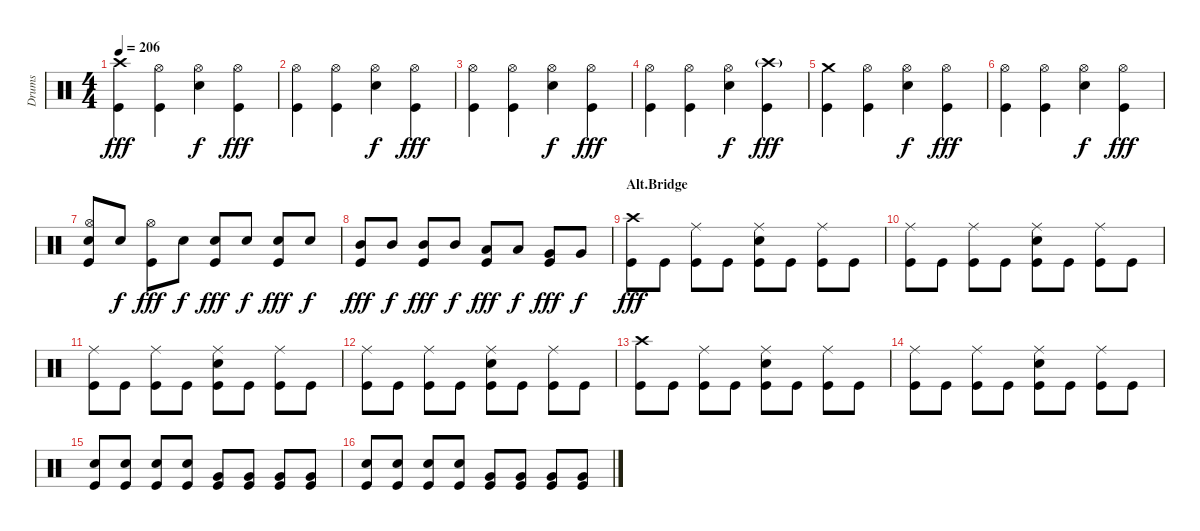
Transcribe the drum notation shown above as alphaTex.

\track ("Drums" "Drums") {instrument percussion}
\staff {score}
\articulation defaults
\ts (4 4)
\tempo 206
\clef neutral
\ks c
("Crash high (hit)" "Kick (hit)").4{dy fff} ("Hi-Hat (open)" "Kick (hit)").4 ("Hi-Hat (open)" "Snare (hit) 2").4{dy f} ("Hi-Hat (open)" "Kick (hit)").4{dy fff} |
("Hi-Hat (open)" "Kick (hit)").4 ("Hi-Hat (open)" "Kick (hit)").4 ("Hi-Hat (open)" "Snare (hit) 2").4{dy f} ("Hi-Hat (open)" "Kick (hit)").4{dy fff} |
("Hi-Hat (open)" "Kick (hit)").4 ("Hi-Hat (open)" "Kick (hit)").4 ("Hi-Hat (open)" "Snare (hit) 2").4{dy f} ("Hi-Hat (open)" "Kick (hit)").4{dy fff} |
("Hi-Hat (open)" "Kick (hit)").4 ("Hi-Hat (open)" "Kick (hit)").4 ("Hi-Hat (open)" "Snare (hit) 2").4{dy f} ("Crash high (hit)"{g} "Kick (hit)").4{dy fff} |
("Crash medium (hit)" "Kick (hit)").4 ("Hi-Hat (open)" "Kick (hit)").4 ("Hi-Hat (open)" "Snare (hit) 2").4{dy f} ("Hi-Hat (open)" "Kick (hit)").4{dy fff} |
("Hi-Hat (open)" "Kick (hit)").4 ("Hi-Hat (open)" "Kick (hit)").4 ("Hi-Hat (open)" "Snare (hit) 2").4{dy f} ("Hi-Hat (open)" "Kick (hit)").4{dy fff} |
("Hi-Hat (open)" "Snare (hit) 2" "Kick (hit)").8 "Snare (hit) 2".8{dy f} ("Hi-Hat (open)" "Kick (hit)").8{dy fff} "Snare (hit) 2".8{dy f} ("Snare (hit) 2" "Kick (hit)").8{dy fff} "Snare (hit) 2".8{dy f} ("Snare (hit) 2" "Kick (hit)").8{dy fff} "Snare (hit) 2".8{dy f} |
("Mid Tom (hit)" "Kick (hit)").8{dy fff} "Mid Tom (hit)".8{dy f} ("Mid Tom (hit)" "Kick (hit)").8{dy fff} "Mid Tom (hit)".8{dy f} ("Low Tom (hit)" "Kick (hit)").8{dy fff} "Low Tom (hit)".8{dy f} ("Very Low Tom (hit)" "Kick (hit)").8{dy fff} "Very Low Tom (hit)".8{dy f} |
\section ("" "Alt.Bridge")
("Crash high (hit)" "Kick (hit)").8{dy fff} "Kick (hit)".8 ("Ride (middle)" "Kick (hit)").8 "Kick (hit)".8 ("Ride (middle)" "Snare (hit) 2" "Kick (hit)").8 "Kick (hit)".8 ("Ride (middle)" "Kick (hit)").8 "Kick (hit)".8 |
("Ride (middle)" "Kick (hit)").8 "Kick (hit)".8 ("Ride (middle)" "Kick (hit)").8 "Kick (hit)".8 ("Ride (middle)" "Snare (hit) 2" "Kick (hit)").8 "Kick (hit)".8 ("Ride (middle)" "Kick (hit)").8 "Kick (hit)".8 |
("Ride (middle)" "Kick (hit)").8 "Kick (hit)".8 ("Ride (middle)" "Kick (hit)").8 "Kick (hit)".8 ("Ride (middle)" "Snare (hit) 2" "Kick (hit)").8 "Kick (hit)".8 ("Ride (middle)" "Kick (hit)").8 "Kick (hit)".8 |
("Ride (middle)" "Kick (hit)").8 "Kick (hit)".8 ("Ride (middle)" "Kick (hit)").8 "Kick (hit)".8 ("Ride (middle)" "Snare (hit) 2" "Kick (hit)").8 "Kick (hit)".8 ("Ride (middle)" "Kick (hit)").8 "Kick (hit)".8 |
("Crash high (hit)" "Kick (hit)").8 "Kick (hit)".8 ("Ride (middle)" "Kick (hit)").8 "Kick (hit)".8 ("Ride (middle)" "Snare (hit) 2" "Kick (hit)").8 "Kick (hit)".8 ("Ride (middle)" "Kick (hit)").8 "Kick (hit)".8 |
("Ride (middle)" "Kick (hit)").8 "Kick (hit)".8 ("Ride (middle)" "Kick (hit)").8 "Kick (hit)".8 ("Ride (middle)" "Snare (hit) 2" "Kick (hit)").8 "Kick (hit)".8 ("Ride (middle)" "Kick (hit)").8 "Kick (hit)".8 |
("Snare (hit) 2" "Kick (hit)").8 ("Snare (hit) 2" "Kick (hit)").8 ("Snare (hit) 2" "Kick (hit)").8 ("Snare (hit) 2" "Kick (hit)").8 ("Very Low Tom (hit)" "Kick (hit)").8 ("Very Low Tom (hit)" "Kick (hit)").8 ("Very Low Tom (hit)" "Kick (hit)").8 ("Very Low Tom (hit)" "Kick (hit)").8 |
("Snare (hit) 2" "Kick (hit)").8 ("Snare (hit) 2" "Kick (hit)").8 ("Snare (hit) 2" "Kick (hit)").8 ("Snare (hit) 2" "Kick (hit)").8 ("Very Low Tom (hit)" "Kick (hit)").8 ("Very Low Tom (hit)" "Kick (hit)").8 ("Very Low Tom (hit)" "Kick (hit)").8 ("Very Low Tom (hit)" "Kick (hit)").8
